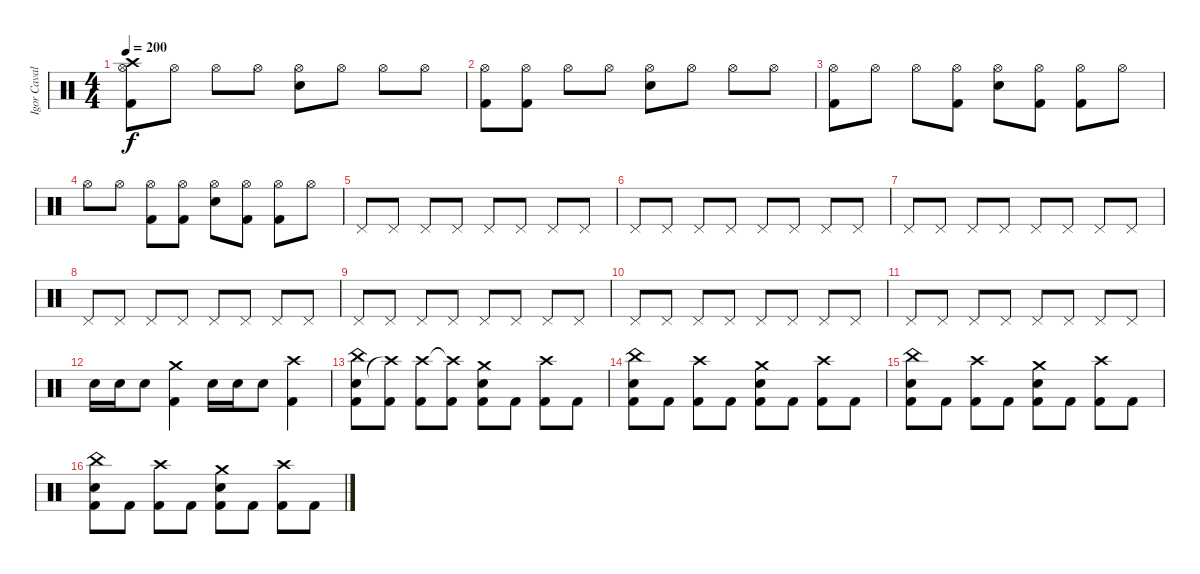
\track ("Igor Cavalera" "Igor Caval") {instrument percussion}
\staff {score}
\articulation defaults
\ts (4 4)
\tempo 200
\clef neutral
\ks c
("Kick (hit) 2" "Crash high (hit)" "Hi-Hat (open)").8{dy f} "Hi-Hat (open)".8 "Hi-Hat (open)".8 "Hi-Hat (open)".8 ("Snare (hit) 2" "Hi-Hat (open)").8 "Hi-Hat (open)".8 "Hi-Hat (open)".8 "Hi-Hat (open)".8 |
("Kick (hit) 2" "Hi-Hat (open)").8 ("Kick (hit) 2" "Hi-Hat (open)").8 "Hi-Hat (open)".8 "Hi-Hat (open)".8 ("Snare (hit) 2" "Hi-Hat (open)").8 "Hi-Hat (open)".8 "Hi-Hat (open)".8 "Hi-Hat (open)".8 |
("Kick (hit) 2" "Hi-Hat (open)").8 "Hi-Hat (open)".8 "Hi-Hat (open)".8 ("Kick (hit) 2" "Hi-Hat (open)").8 ("Snare (hit) 2" "Hi-Hat (open)").8 ("Kick (hit) 2" "Hi-Hat (open)").8 ("Kick (hit) 2" "Hi-Hat (open)").8 "Hi-Hat (open)".8 |
"Hi-Hat (open)".8 "Hi-Hat (open)".8 ("Kick (hit) 2" "Hi-Hat (open)").8 ("Kick (hit) 2" "Hi-Hat (open)").8 ("Snare (hit) 2" "Hi-Hat (open)").8 ("Kick (hit) 2" "Hi-Hat (open)").8 ("Kick (hit) 2" "Hi-Hat (open)").8 "Hi-Hat (open)".8 |
"Pedal Hi-Hat (hit)".8 "Pedal Hi-Hat (hit)".8 "Pedal Hi-Hat (hit)".8 "Pedal Hi-Hat (hit)".8 "Pedal Hi-Hat (hit)".8 "Pedal Hi-Hat (hit)".8 "Pedal Hi-Hat (hit)".8 "Pedal Hi-Hat (hit)".8 |
"Pedal Hi-Hat (hit)".8 "Pedal Hi-Hat (hit)".8 "Pedal Hi-Hat (hit)".8 "Pedal Hi-Hat (hit)".8 "Pedal Hi-Hat (hit)".8 "Pedal Hi-Hat (hit)".8 "Pedal Hi-Hat (hit)".8 "Pedal Hi-Hat (hit)".8 |
"Pedal Hi-Hat (hit)".8 "Pedal Hi-Hat (hit)".8 "Pedal Hi-Hat (hit)".8 "Pedal Hi-Hat (hit)".8 "Pedal Hi-Hat (hit)".8 "Pedal Hi-Hat (hit)".8 "Pedal Hi-Hat (hit)".8 "Pedal Hi-Hat (hit)".8 |
"Pedal Hi-Hat (hit)".8 "Pedal Hi-Hat (hit)".8 "Pedal Hi-Hat (hit)".8 "Pedal Hi-Hat (hit)".8 "Pedal Hi-Hat (hit)".8 "Pedal Hi-Hat (hit)".8 "Pedal Hi-Hat (hit)".8 "Pedal Hi-Hat (hit)".8 |
"Pedal Hi-Hat (hit)".8 "Pedal Hi-Hat (hit)".8 "Pedal Hi-Hat (hit)".8 "Pedal Hi-Hat (hit)".8 "Pedal Hi-Hat (hit)".8 "Pedal Hi-Hat (hit)".8 "Pedal Hi-Hat (hit)".8 "Pedal Hi-Hat (hit)".8 |
"Pedal Hi-Hat (hit)".8 "Pedal Hi-Hat (hit)".8 "Pedal Hi-Hat (hit)".8 "Pedal Hi-Hat (hit)".8 "Pedal Hi-Hat (hit)".8 "Pedal Hi-Hat (hit)".8 "Pedal Hi-Hat (hit)".8 "Pedal Hi-Hat (hit)".8 |
"Pedal Hi-Hat (hit)".8 "Pedal Hi-Hat (hit)".8 "Pedal Hi-Hat (hit)".8 "Pedal Hi-Hat (hit)".8 "Pedal Hi-Hat (hit)".8 "Pedal Hi-Hat (hit)".8 "Pedal Hi-Hat (hit)".8 "Pedal Hi-Hat (hit)".8 |
"Snare (hit) 2".16 "Snare (hit) 2".16 "Snare (hit) 2".8 ("Kick (hit) 2" "Crash medium (hit)").4 "Snare (hit) 2".16 "Snare (hit) 2".16 "Snare (hit) 2".8 ("Kick (hit) 2" "Crash high (hit)").4 |
("Kick (hit) 2" "Snare (hit) 2" "China (hit)").8 ("Kick (hit) 2" "Crash high (hit)"{t}).8 ("Kick (hit) 2" "Crash high (hit)").8 ("Kick (hit) 2" "Crash high (hit)"{t}).8 ("Kick (hit) 2" "Snare (hit) 2" "Crash medium (hit)").8 "Kick (hit) 2".8 ("Kick (hit) 2" "Crash high (hit)").8 "Kick (hit) 2".8 |
("Kick (hit) 2" "Snare (hit) 2" "China (hit)").8 "Kick (hit) 2".8 ("Kick (hit) 2" "Crash high (hit)").8 "Kick (hit) 2".8 ("Kick (hit) 2" "Snare (hit) 2" "Crash medium (hit)").8 "Kick (hit) 2".8 ("Kick (hit) 2" "Crash high (hit)").8 "Kick (hit) 2".8 |
("Kick (hit) 2" "Snare (hit) 2" "China (hit)").8 "Kick (hit) 2".8 ("Kick (hit) 2" "Crash high (hit)").8 "Kick (hit) 2".8 ("Kick (hit) 2" "Snare (hit) 2" "Crash medium (hit)").8 "Kick (hit) 2".8 ("Kick (hit) 2" "Crash high (hit)").8 "Kick (hit) 2".8 |
("Kick (hit) 2" "Snare (hit) 2" "China (hit)").8 "Kick (hit) 2".8 ("Kick (hit) 2" "Crash high (hit)").8 "Kick (hit) 2".8 ("Kick (hit) 2" "Snare (hit) 2" "Crash medium (hit)").8 "Kick (hit) 2".8 ("Kick (hit) 2" "Crash high (hit)").8 "Kick (hit) 2".8
